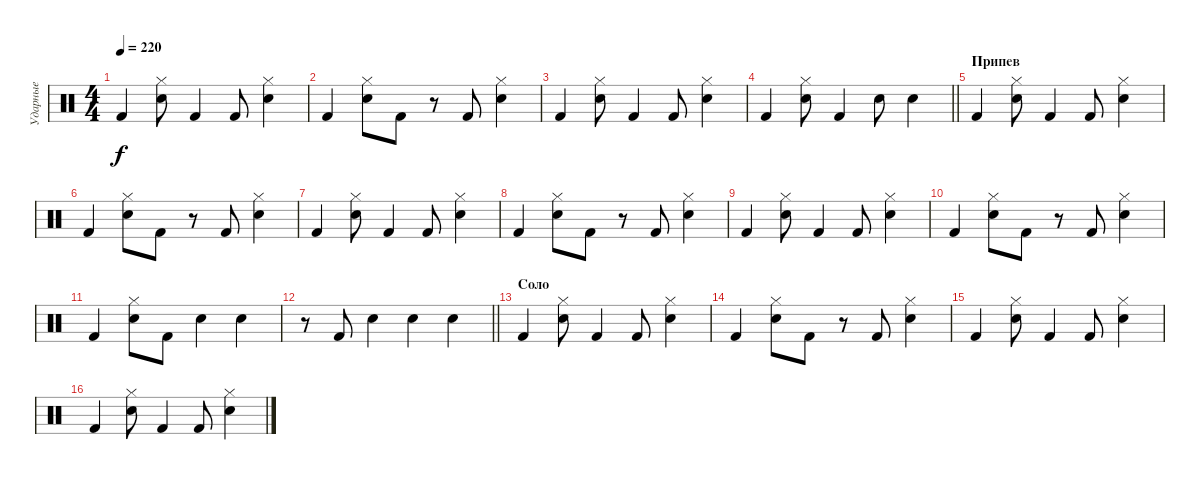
\track ("Ударные" "Ударные") {instrument percussion}
\staff {score}
\articulation defaults
\ts (4 4)
\tempo 220
\clef neutral
\ks c "Kick (hit) 2".4{dy f}
("Hi-Hat (closed)" "Snare (hit) 2").8 "Kick (hit) 2".4 "Kick (hit) 2".8 ("Hi-Hat (closed)" "Snare (hit) 2").4 |
"Kick (hit) 2".4 ("Hi-Hat (closed)" "Snare (hit) 2").8 "Kick (hit) 2".8 r.8 "Kick (hit) 2".8 ("Hi-Hat (closed)" "Snare (hit) 2").4 |
"Kick (hit) 2".4 ("Hi-Hat (closed)" "Snare (hit) 2").8 "Kick (hit) 2".4 "Kick (hit) 2".8 ("Hi-Hat (closed)" "Snare (hit) 2").4 |
\barLineRight lightlight "Kick (hit) 2".4
("Hi-Hat (closed)" "Snare (hit) 2").8 "Kick (hit) 2".4 "Snare (hit) 2".8 "Snare (hit) 2".4 |
\section ("" "Припев")
"Kick (hit) 2".4 ("Hi-Hat (closed)" "Snare (hit) 2").8 "Kick (hit) 2".4 "Kick (hit) 2".8 ("Hi-Hat (closed)" "Snare (hit) 2").4 |
"Kick (hit) 2".4 ("Hi-Hat (closed)" "Snare (hit) 2").8 "Kick (hit) 2".8 r.8 "Kick (hit) 2".8 ("Hi-Hat (closed)" "Snare (hit) 2").4 |
"Kick (hit) 2".4 ("Hi-Hat (closed)" "Snare (hit) 2").8 "Kick (hit) 2".4 "Kick (hit) 2".8 ("Hi-Hat (closed)" "Snare (hit) 2").4 |
"Kick (hit) 2".4 ("Hi-Hat (closed)" "Snare (hit) 2").8 "Kick (hit) 2".8 r.8 "Kick (hit) 2".8 ("Hi-Hat (closed)" "Snare (hit) 2").4 |
"Kick (hit) 2".4 ("Hi-Hat (closed)" "Snare (hit) 2").8 "Kick (hit) 2".4 "Kick (hit) 2".8 ("Hi-Hat (closed)" "Snare (hit) 2").4 |
"Kick (hit) 2".4 ("Hi-Hat (closed)" "Snare (hit) 2").8 "Kick (hit) 2".8 r.8 "Kick (hit) 2".8 ("Hi-Hat (closed)" "Snare (hit) 2").4 |
"Kick (hit) 2".4 ("Hi-Hat (closed)" "Snare (hit) 2").8 "Kick (hit) 2".8 "Snare (hit) 2".4 "Snare (hit) 2".4 |
\barLineRight lightlight
r.8 "Kick (hit) 2".8 "Snare (hit) 2".4 "Snare (hit) 2".4 "Snare (hit) 2".4 |
\section ("" "Соло")
"Kick (hit) 2".4 ("Hi-Hat (closed)" "Snare (hit) 2").8 "Kick (hit) 2".4 "Kick (hit) 2".8 ("Hi-Hat (closed)" "Snare (hit) 2").4 |
"Kick (hit) 2".4 ("Hi-Hat (closed)" "Snare (hit) 2").8 "Kick (hit) 2".8 r.8 "Kick (hit) 2".8 ("Hi-Hat (closed)" "Snare (hit) 2").4 |
"Kick (hit) 2".4 ("Hi-Hat (closed)" "Snare (hit) 2").8 "Kick (hit) 2".4 "Kick (hit) 2".8 ("Hi-Hat (closed)" "Snare (hit) 2").4 |
"Kick (hit) 2".4 ("Hi-Hat (closed)" "Snare (hit) 2").8 "Kick (hit) 2".4 "Kick (hit) 2".8 ("Hi-Hat (closed)" "Snare (hit) 2").4
